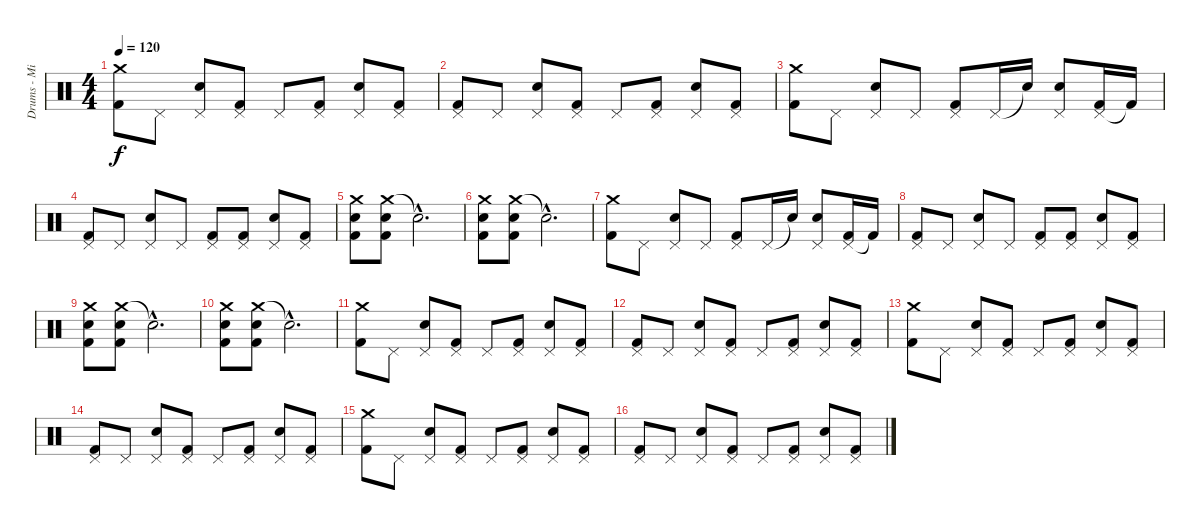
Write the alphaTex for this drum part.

\track ("Drums - Mike Dee" "Drums - Mi") {instrument percussion}
\staff {score}
\articulation defaults
\ts (4 4)
\tempo 120
\clef neutral
\ks c
("Crash medium (hit)" "Kick (hit) 2").8{dy f} "Pedal Hi-Hat (hit)".8 ("Pedal Hi-Hat (hit)" "Snare (hit) 2").8 ("Pedal Hi-Hat (hit)" "Kick (hit) 2").8 "Pedal Hi-Hat (hit)".8 ("Pedal Hi-Hat (hit)" "Kick (hit) 2").8 ("Pedal Hi-Hat (hit)" "Snare (hit) 2").8 ("Pedal Hi-Hat (hit)" "Kick (hit) 2").8 |
("Pedal Hi-Hat (hit)" "Kick (hit) 2").8 "Pedal Hi-Hat (hit)".8 ("Pedal Hi-Hat (hit)" "Snare (hit) 2").8 ("Pedal Hi-Hat (hit)" "Kick (hit) 2").8 "Pedal Hi-Hat (hit)".8 ("Pedal Hi-Hat (hit)" "Kick (hit) 2").8 ("Pedal Hi-Hat (hit)" "Snare (hit) 2").8 ("Pedal Hi-Hat (hit)" "Kick (hit) 2").8 |
("Crash medium (hit)" "Kick (hit) 2").8 "Pedal Hi-Hat (hit)".8 ("Pedal Hi-Hat (hit)" "Snare (hit) 2").8 "Pedal Hi-Hat (hit)".8 ("Pedal Hi-Hat (hit)" "Kick (hit) 2").8 "Pedal Hi-Hat (hit)".16 "Snare (hit)"{t}.16 ("Pedal Hi-Hat (hit)" "Snare (hit) 2").8 ("Pedal Hi-Hat (hit)" "Kick (hit) 2").16 "Kick (hit) 2"{t}.16 |
("Pedal Hi-Hat (hit)" "Kick (hit) 2").8 "Pedal Hi-Hat (hit)".8 ("Pedal Hi-Hat (hit)" "Snare (hit) 2").8 "Pedal Hi-Hat (hit)".8 ("Pedal Hi-Hat (hit)" "Kick (hit) 2").8 ("Pedal Hi-Hat (hit)" "Kick (hit) 2").8 ("Pedal Hi-Hat (hit)" "Snare (hit) 2").8 ("Pedal Hi-Hat (hit)" "Kick (hit) 2").8 |
("Crash medium (hit)" "Snare (hit) 2" "Kick (hit) 2").8 ("Crash medium (hit)" "Snare (hit) 2" "Kick (hit) 2").8 "Snare (hit)"{hac t}.2{d} |
("Crash medium (hit)" "Snare (hit) 2" "Kick (hit) 2").8 ("Crash medium (hit)" "Snare (hit) 2" "Kick (hit) 2").8 "Snare (hit)"{hac t}.2{d} |
("Crash medium (hit)" "Kick (hit) 2").8 "Pedal Hi-Hat (hit)".8 ("Pedal Hi-Hat (hit)" "Snare (hit) 2").8 "Pedal Hi-Hat (hit)".8 ("Pedal Hi-Hat (hit)" "Kick (hit) 2").8 "Pedal Hi-Hat (hit)".16 "Snare (hit)"{t}.16 ("Pedal Hi-Hat (hit)" "Snare (hit) 2").8 ("Pedal Hi-Hat (hit)" "Kick (hit) 2").16 "Kick (hit) 2"{t}.16 |
("Pedal Hi-Hat (hit)" "Kick (hit) 2").8 "Pedal Hi-Hat (hit)".8 ("Pedal Hi-Hat (hit)" "Snare (hit) 2").8 "Pedal Hi-Hat (hit)".8 ("Pedal Hi-Hat (hit)" "Kick (hit) 2").8 ("Pedal Hi-Hat (hit)" "Kick (hit) 2").8 ("Pedal Hi-Hat (hit)" "Snare (hit) 2").8 ("Pedal Hi-Hat (hit)" "Kick (hit) 2").8 |
("Crash medium (hit)" "Snare (hit) 2" "Kick (hit) 2").8 ("Crash medium (hit)" "Snare (hit) 2" "Kick (hit) 2").8 "Snare (hit)"{hac t}.2{d} |
("Crash medium (hit)" "Snare (hit) 2" "Kick (hit) 2").8 ("Crash medium (hit)" "Snare (hit) 2" "Kick (hit) 2").8 "Snare (hit)"{hac t}.2{d} |
("Crash medium (hit)" "Kick (hit) 2").8 "Pedal Hi-Hat (hit)".8 ("Pedal Hi-Hat (hit)" "Snare (hit) 2").8 ("Pedal Hi-Hat (hit)" "Kick (hit) 2").8 "Pedal Hi-Hat (hit)".8 ("Pedal Hi-Hat (hit)" "Kick (hit) 2").8 ("Pedal Hi-Hat (hit)" "Snare (hit) 2").8 ("Pedal Hi-Hat (hit)" "Kick (hit) 2").8 |
("Pedal Hi-Hat (hit)" "Kick (hit) 2").8 "Pedal Hi-Hat (hit)".8 ("Pedal Hi-Hat (hit)" "Snare (hit) 2").8 ("Pedal Hi-Hat (hit)" "Kick (hit) 2").8 "Pedal Hi-Hat (hit)".8 ("Pedal Hi-Hat (hit)" "Kick (hit) 2").8 ("Pedal Hi-Hat (hit)" "Snare (hit) 2").8 ("Pedal Hi-Hat (hit)" "Kick (hit) 2").8 |
("Crash medium (hit)" "Kick (hit) 2").8 "Pedal Hi-Hat (hit)".8 ("Pedal Hi-Hat (hit)" "Snare (hit) 2").8 ("Pedal Hi-Hat (hit)" "Kick (hit) 2").8 "Pedal Hi-Hat (hit)".8 ("Pedal Hi-Hat (hit)" "Kick (hit) 2").8 ("Pedal Hi-Hat (hit)" "Snare (hit) 2").8 ("Pedal Hi-Hat (hit)" "Kick (hit) 2").8 |
("Pedal Hi-Hat (hit)" "Kick (hit) 2").8 "Pedal Hi-Hat (hit)".8 ("Pedal Hi-Hat (hit)" "Snare (hit) 2").8 ("Pedal Hi-Hat (hit)" "Kick (hit) 2").8 "Pedal Hi-Hat (hit)".8 ("Pedal Hi-Hat (hit)" "Kick (hit) 2").8 ("Pedal Hi-Hat (hit)" "Snare (hit) 2").8 ("Pedal Hi-Hat (hit)" "Kick (hit) 2").8 |
("Crash medium (hit)" "Kick (hit) 2").8 "Pedal Hi-Hat (hit)".8 ("Pedal Hi-Hat (hit)" "Snare (hit) 2").8 ("Pedal Hi-Hat (hit)" "Kick (hit) 2").8 "Pedal Hi-Hat (hit)".8 ("Pedal Hi-Hat (hit)" "Kick (hit) 2").8 ("Pedal Hi-Hat (hit)" "Snare (hit) 2").8 ("Pedal Hi-Hat (hit)" "Kick (hit) 2").8 |
("Pedal Hi-Hat (hit)" "Kick (hit) 2").8 "Pedal Hi-Hat (hit)".8 ("Pedal Hi-Hat (hit)" "Snare (hit) 2").8 ("Pedal Hi-Hat (hit)" "Kick (hit) 2").8 "Pedal Hi-Hat (hit)".8 ("Pedal Hi-Hat (hit)" "Kick (hit) 2").8 ("Pedal Hi-Hat (hit)" "Snare (hit) 2").8 ("Pedal Hi-Hat (hit)" "Kick (hit) 2").8
